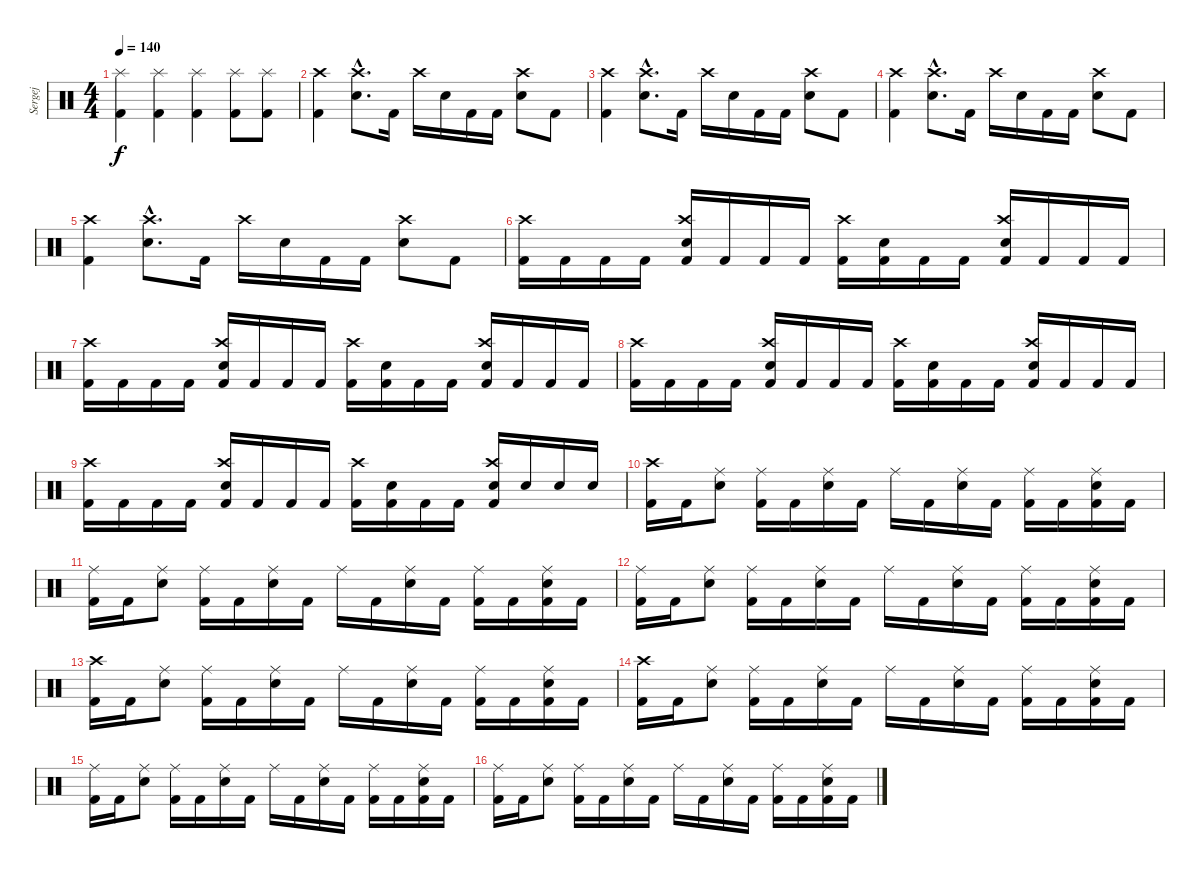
\track ("Sergej" "Sergej") {instrument percussion}
\staff {score}
\articulation defaults
\ts (4 4)
\tempo 140
\clef neutral
\ks c
("Splash (hit)" "Kick (hit) 2").4{dy f} ("Splash (hit)" "Kick (hit) 2").4 ("Splash (hit)" "Kick (hit) 2").4 ("Splash (hit)" "Kick (hit) 2").8 ("Splash (hit)" "Kick (hit) 2").8 |
("Crash high (hit)" "Kick (hit) 2").4 ("Crash high (hit)"{hac} "Snare (hit) 2"{hac}).8{d} "Kick (hit) 2".16 "Crash high (hit)".16 "Snare (hit) 2".16 "Kick (hit) 2".16 "Kick (hit) 2".16 ("Crash high (hit)" "Snare (hit) 2").8 "Kick (hit) 2".8 |
("Crash high (hit)" "Kick (hit) 2").4 ("Crash high (hit)"{hac} "Snare (hit) 2"{hac}).8{d} "Kick (hit) 2".16 "Crash high (hit)".16 "Snare (hit) 2".16 "Kick (hit) 2".16 "Kick (hit) 2".16 ("Crash high (hit)" "Snare (hit) 2").8 "Kick (hit) 2".8 |
("Crash high (hit)" "Kick (hit) 2").4 ("Crash high (hit)"{hac} "Snare (hit) 2"{hac}).8{d} "Kick (hit) 2".16 "Crash high (hit)".16 "Snare (hit) 2".16 "Kick (hit) 2".16 "Kick (hit) 2".16 ("Crash high (hit)" "Snare (hit) 2").8 "Kick (hit) 2".8 |
("Crash high (hit)" "Kick (hit) 2").4 ("Crash high (hit)"{hac} "Snare (hit) 2"{hac}).8{d} "Kick (hit) 2".16 "Crash high (hit)".16 "Snare (hit) 2".16 "Kick (hit) 2".16 "Kick (hit) 2".16 ("Crash high (hit)" "Snare (hit) 2").8 "Kick (hit) 2".8 |
("Crash high (hit)" "Kick (hit) 2").16 "Kick (hit) 2".16 "Kick (hit) 2".16 "Kick (hit) 2".16 ("Crash high (hit)" "Snare (hit) 2" "Kick (hit) 2").16 "Kick (hit) 2".16 "Kick (hit) 2".16 "Kick (hit) 2".16 ("Crash high (hit)" "Kick (hit) 2").16 ("Snare (hit) 2" "Kick (hit) 2").16 "Kick (hit) 2".16 "Kick (hit) 2".16 ("Crash high (hit)" "Snare (hit) 2" "Kick (hit) 2").16 "Kick (hit) 2".16 "Kick (hit) 2".16 "Kick (hit) 2".16 |
("Crash high (hit)" "Kick (hit) 2").16 "Kick (hit) 2".16 "Kick (hit) 2".16 "Kick (hit) 2".16 ("Crash high (hit)" "Snare (hit) 2" "Kick (hit) 2").16 "Kick (hit) 2".16 "Kick (hit) 2".16 "Kick (hit) 2".16 ("Crash high (hit)" "Kick (hit) 2").16 ("Snare (hit) 2" "Kick (hit) 2").16 "Kick (hit) 2".16 "Kick (hit) 2".16 ("Crash high (hit)" "Snare (hit) 2" "Kick (hit) 2").16 "Kick (hit) 2".16 "Kick (hit) 2".16 "Kick (hit) 2".16 |
("Crash high (hit)" "Kick (hit) 2").16 "Kick (hit) 2".16 "Kick (hit) 2".16 "Kick (hit) 2".16 ("Crash high (hit)" "Snare (hit) 2" "Kick (hit) 2").16 "Kick (hit) 2".16 "Kick (hit) 2".16 "Kick (hit) 2".16 ("Crash high (hit)" "Kick (hit) 2").16 ("Snare (hit) 2" "Kick (hit) 2").16 "Kick (hit) 2".16 "Kick (hit) 2".16 ("Crash high (hit)" "Snare (hit) 2" "Kick (hit) 2").16 "Kick (hit) 2".16 "Kick (hit) 2".16 "Kick (hit) 2".16 |
("Crash high (hit)" "Kick (hit) 2").16 "Kick (hit) 2".16 "Kick (hit) 2".16 "Kick (hit) 2".16 ("Crash high (hit)" "Snare (hit) 2" "Kick (hit) 2").16 "Kick (hit) 2".16 "Kick (hit) 2".16 "Kick (hit) 2".16 ("Crash high (hit)" "Kick (hit) 2").16 ("Snare (hit) 2" "Kick (hit) 2").16 "Kick (hit) 2".16 "Kick (hit) 2".16 ("Crash high (hit)" "Snare (hit) 2" "Kick (hit) 2").16 "Snare (hit) 2".16 "Snare (hit) 2".16 "Snare (hit) 2".16 |
("Crash high (hit)" "Kick (hit) 2").16 "Kick (hit) 2".16 ("Ride (middle)" "Snare (hit) 2").8 ("Ride (middle)" "Kick (hit) 2").16 "Kick (hit) 2".16 ("Ride (middle)" "Snare (hit) 2").16 "Kick (hit) 2".16 "Ride (middle)".16 "Kick (hit) 2".16 ("Ride (middle)" "Snare (hit) 2").16 "Kick (hit) 2".16 ("Ride (middle)" "Kick (hit) 2").16 "Kick (hit) 2".16 ("Ride (middle)" "Snare (hit) 2" "Kick (hit) 2").16 "Kick (hit) 2".16 |
("Ride (middle)" "Kick (hit) 2").16 "Kick (hit) 2".16 ("Ride (middle)" "Snare (hit) 2").8 ("Ride (middle)" "Kick (hit) 2").16 "Kick (hit) 2".16 ("Ride (middle)" "Snare (hit) 2").16 "Kick (hit) 2".16 "Ride (middle)".16 "Kick (hit) 2".16 ("Ride (middle)" "Snare (hit) 2").16 "Kick (hit) 2".16 ("Ride (middle)" "Kick (hit) 2").16 "Kick (hit) 2".16 ("Ride (middle)" "Snare (hit) 2" "Kick (hit) 2").16 "Kick (hit) 2".16 |
("Ride (middle)" "Kick (hit) 2").16 "Kick (hit) 2".16 ("Ride (middle)" "Snare (hit) 2").8 ("Ride (middle)" "Kick (hit) 2").16 "Kick (hit) 2".16 ("Ride (middle)" "Snare (hit) 2").16 "Kick (hit) 2".16 "Ride (middle)".16 "Kick (hit) 2".16 ("Ride (middle)" "Snare (hit) 2").16 "Kick (hit) 2".16 ("Ride (middle)" "Kick (hit) 2").16 "Kick (hit) 2".16 ("Ride (middle)" "Snare (hit) 2" "Kick (hit) 2").16 "Kick (hit) 2".16 |
("Crash high (hit)" "Kick (hit) 2").16 "Kick (hit) 2".16 ("Ride (middle)" "Snare (hit) 2").8 ("Ride (middle)" "Kick (hit) 2").16 "Kick (hit) 2".16 ("Ride (middle)" "Snare (hit) 2").16 "Kick (hit) 2".16 "Ride (middle)".16 "Kick (hit) 2".16 ("Ride (middle)" "Snare (hit) 2").16 "Kick (hit) 2".16 ("Ride (middle)" "Kick (hit) 2").16 "Kick (hit) 2".16 ("Ride (middle)" "Snare (hit) 2" "Kick (hit) 2").16 "Kick (hit) 2".16 |
("Crash high (hit)" "Kick (hit) 2").16 "Kick (hit) 2".16 ("Ride (middle)" "Snare (hit) 2").8 ("Ride (middle)" "Kick (hit) 2").16 "Kick (hit) 2".16 ("Ride (middle)" "Snare (hit) 2").16 "Kick (hit) 2".16 "Ride (middle)".16 "Kick (hit) 2".16 ("Ride (middle)" "Snare (hit) 2").16 "Kick (hit) 2".16 ("Ride (middle)" "Kick (hit) 2").16 "Kick (hit) 2".16 ("Ride (middle)" "Snare (hit) 2" "Kick (hit) 2").16 "Kick (hit) 2".16 |
("Ride (middle)" "Kick (hit) 2").16 "Kick (hit) 2".16 ("Ride (middle)" "Snare (hit) 2").8 ("Ride (middle)" "Kick (hit) 2").16 "Kick (hit) 2".16 ("Ride (middle)" "Snare (hit) 2").16 "Kick (hit) 2".16 "Ride (middle)".16 "Kick (hit) 2".16 ("Ride (middle)" "Snare (hit) 2").16 "Kick (hit) 2".16 ("Ride (middle)" "Kick (hit) 2").16 "Kick (hit) 2".16 ("Ride (middle)" "Snare (hit) 2" "Kick (hit) 2").16 "Kick (hit) 2".16 |
("Ride (middle)" "Kick (hit) 2").16 "Kick (hit) 2".16 ("Ride (middle)" "Snare (hit) 2").8 ("Ride (middle)" "Kick (hit) 2").16 "Kick (hit) 2".16 ("Ride (middle)" "Snare (hit) 2").16 "Kick (hit) 2".16 "Ride (middle)".16 "Kick (hit) 2".16 ("Ride (middle)" "Snare (hit) 2").16 "Kick (hit) 2".16 ("Ride (middle)" "Kick (hit) 2").16 "Kick (hit) 2".16 ("Ride (middle)" "Snare (hit) 2" "Kick (hit) 2").16 "Kick (hit) 2".16
